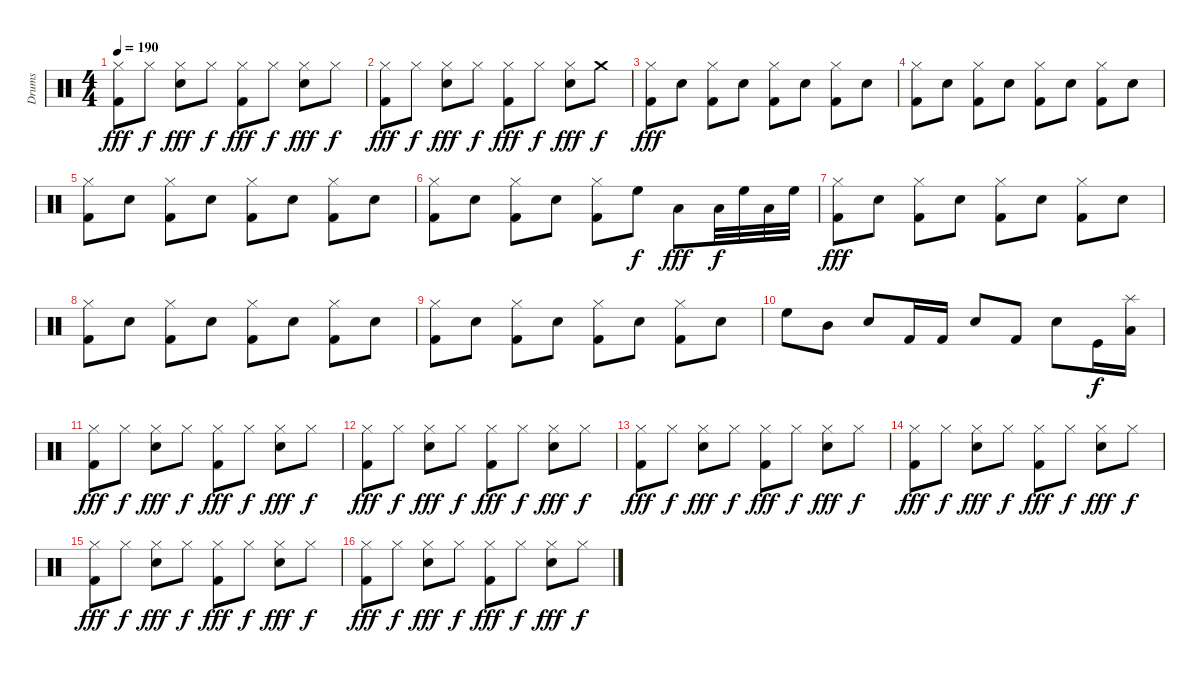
\track ("Drums" "Drums") {instrument percussion}
\staff {score}
\articulation defaults
\ts (4 4)
\tempo 190
\clef neutral
\ks c
("Kick (hit) 2" "Hi-Hat (closed)").8{dy fff} "Hi-Hat (closed)".8{dy f} ("Snare (hit) 2" "Hi-Hat (closed)").8{dy fff} "Hi-Hat (closed)".8{dy f} ("Kick (hit) 2" "Hi-Hat (closed)").8{dy fff} "Hi-Hat (closed)".8{dy f} ("Snare (hit) 2" "Hi-Hat (closed)").8{dy fff} "Hi-Hat (closed)".8{dy f} |
("Kick (hit) 2" "Hi-Hat (closed)").8{dy fff} "Hi-Hat (closed)".8{dy f} ("Snare (hit) 2" "Hi-Hat (closed)").8{dy fff} "Hi-Hat (closed)".8{dy f} ("Kick (hit) 2" "Hi-Hat (closed)").8{dy fff} "Hi-Hat (closed)".8{dy f} ("Snare (hit) 2" "Hi-Hat (closed)").8{dy fff} "Crash medium (hit)".8{dy f} |
("Kick (hit) 2" "Hi-Hat (closed)").8{dy fff} "Snare (hit) 2".8 ("Kick (hit) 2" "Hi-Hat (closed)").8 "Snare (hit) 2".8 ("Kick (hit) 2" "Hi-Hat (closed)").8 "Snare (hit) 2".8 ("Kick (hit) 2" "Hi-Hat (closed)").8 "Snare (hit) 2".8 |
("Kick (hit) 2" "Hi-Hat (closed)").8 "Snare (hit) 2".8 ("Kick (hit) 2" "Hi-Hat (closed)").8 "Snare (hit) 2".8 ("Kick (hit) 2" "Hi-Hat (closed)").8 "Snare (hit) 2".8 ("Kick (hit) 2" "Hi-Hat (closed)").8 "Snare (hit) 2".8 |
("Kick (hit) 2" "Hi-Hat (closed)").8 "Snare (hit) 2".8 ("Kick (hit) 2" "Hi-Hat (closed)").8 "Snare (hit) 2".8 ("Kick (hit) 2" "Hi-Hat (closed)").8 "Snare (hit) 2".8 ("Kick (hit) 2" "Hi-Hat (closed)").8 "Snare (hit) 2".8 |
("Kick (hit) 2" "Hi-Hat (closed)").8 "Snare (hit) 2".8 ("Kick (hit) 2" "Hi-Hat (closed)").8 "Snare (hit) 2".8 ("Kick (hit) 2" "Hi-Hat (closed)").8 "High Floor Tom (hit)".8{dy f} "Low Floor Tom (hit)".8{dy fff} "Low Tom (hit)".32{dy f} "High Floor Tom (hit)".32 "Low Tom (hit)".32 "High Floor Tom (hit)".32 |
("Kick (hit) 2" "Hi-Hat (closed)").8{dy fff} "Snare (hit) 2".8 ("Kick (hit) 2" "Hi-Hat (closed)").8 "Snare (hit) 2".8 ("Kick (hit) 2" "Hi-Hat (closed)").8 "Snare (hit) 2".8 ("Kick (hit) 2" "Hi-Hat (closed)").8 "Snare (hit) 2".8 |
("Kick (hit) 2" "Hi-Hat (closed)").8 "Snare (hit) 2".8 ("Kick (hit) 2" "Hi-Hat (closed)").8 "Snare (hit) 2".8 ("Kick (hit) 2" "Hi-Hat (closed)").8 "Snare (hit) 2".8 ("Kick (hit) 2" "Hi-Hat (closed)").8 "Snare (hit) 2".8 |
("Kick (hit) 2" "Hi-Hat (closed)").8 "Snare (hit) 2".8 ("Kick (hit) 2" "Hi-Hat (closed)").8 "Snare (hit) 2".8 ("Kick (hit) 2" "Hi-Hat (closed)").8 "Snare (hit) 2".8 ("Kick (hit) 2" "Hi-Hat (closed)").8 "Snare (hit) 2".8 |
"High Floor Tom (hit)".8 "Mid Tom (hit)".8 "Snare (hit) 2".8 "Kick (hit) 2".16 "Kick (hit) 2".16 "Snare (hit) 2".8 "Kick (hit) 2".8 "Snare (hit) 2".8 "Kick (hit)".16{dy f} ("Low Tom (hit)" "Splash (hit)").16 |
("Kick (hit) 2" "Hi-Hat (closed)").8{dy fff} "Hi-Hat (closed)".8{dy f} ("Snare (hit) 2" "Hi-Hat (closed)").8{dy fff} "Hi-Hat (closed)".8{dy f} ("Kick (hit) 2" "Hi-Hat (closed)").8{dy fff} "Hi-Hat (closed)".8{dy f} ("Snare (hit) 2" "Hi-Hat (closed)").8{dy fff} "Hi-Hat (closed)".8{dy f} |
("Kick (hit) 2" "Hi-Hat (closed)").8{dy fff} "Hi-Hat (closed)".8{dy f} ("Snare (hit) 2" "Hi-Hat (closed)").8{dy fff} "Hi-Hat (closed)".8{dy f} ("Kick (hit) 2" "Hi-Hat (closed)").8{dy fff} "Hi-Hat (closed)".8{dy f} ("Snare (hit) 2" "Hi-Hat (closed)").8{dy fff} "Hi-Hat (closed)".8{dy f} |
("Kick (hit) 2" "Hi-Hat (closed)").8{dy fff} "Hi-Hat (closed)".8{dy f} ("Snare (hit) 2" "Hi-Hat (closed)").8{dy fff} "Hi-Hat (closed)".8{dy f} ("Kick (hit) 2" "Hi-Hat (closed)").8{dy fff} "Hi-Hat (closed)".8{dy f} ("Snare (hit) 2" "Hi-Hat (closed)").8{dy fff} "Hi-Hat (closed)".8{dy f} |
("Kick (hit) 2" "Hi-Hat (closed)").8{dy fff} "Hi-Hat (closed)".8{dy f} ("Snare (hit) 2" "Hi-Hat (closed)").8{dy fff} "Hi-Hat (closed)".8{dy f} ("Kick (hit) 2" "Hi-Hat (closed)").8{dy fff} "Hi-Hat (closed)".8{dy f} ("Snare (hit) 2" "Hi-Hat (closed)").8{dy fff} "Hi-Hat (closed)".8{dy f} |
("Kick (hit) 2" "Hi-Hat (closed)").8{dy fff} "Hi-Hat (closed)".8{dy f} ("Snare (hit) 2" "Hi-Hat (closed)").8{dy fff} "Hi-Hat (closed)".8{dy f} ("Kick (hit) 2" "Hi-Hat (closed)").8{dy fff} "Hi-Hat (closed)".8{dy f} ("Snare (hit) 2" "Hi-Hat (closed)").8{dy fff} "Hi-Hat (closed)".8{dy f} |
("Kick (hit) 2" "Hi-Hat (closed)").8{dy fff} "Hi-Hat (closed)".8{dy f} ("Snare (hit) 2" "Hi-Hat (closed)").8{dy fff} "Hi-Hat (closed)".8{dy f} ("Kick (hit) 2" "Hi-Hat (closed)").8{dy fff} "Hi-Hat (closed)".8{dy f} ("Snare (hit) 2" "Hi-Hat (closed)").8{dy fff} "Hi-Hat (closed)".8{dy f}
